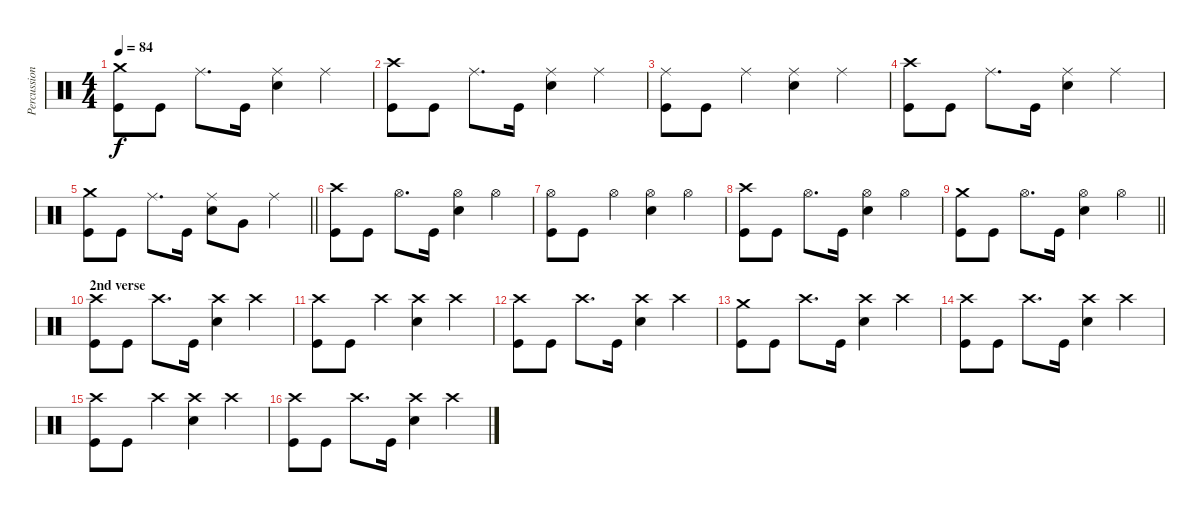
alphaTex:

\track ("Percussions" "Percussion") {instrument percussion}
\staff {score}
\articulation defaults
\ts (4 4)
\tempo 84
\clef neutral
\ks c
("Crash medium (hit)" "Kick (hit)").8{dy f} "Kick (hit)".8 "Ride (middle)".8{d} "Kick (hit)".16 ("Electric Snare (hit)" "Ride (middle)").4 "Ride (middle)".4 |
("Crash high (hit)" "Kick (hit)").8 "Kick (hit)".8 "Ride (middle)".8{d} "Kick (hit)".16 ("Electric Snare (hit)" "Ride (middle)").4 "Ride (middle)".4 |
("Ride (middle)" "Kick (hit)").8 "Kick (hit)".8 "Ride (middle)".4 ("Electric Snare (hit)" "Ride (middle)").4 "Ride (middle)".4 |
("Crash high (hit)" "Kick (hit)").8 "Kick (hit)".8 "Ride (middle)".8{d} "Kick (hit)".16 ("Electric Snare (hit)" "Ride (middle)").4 "Ride (middle)".4 |
\barLineRight lightlight
("Crash medium (hit)" "Kick (hit)").8 "Kick (hit)".8 "Ride (middle)".8{d} "Kick (hit)".16 ("Electric Snare (hit)" "Ride (middle)").8 "Very Low Tom (hit)".8 "Ride (middle)".4 |
\section ("" "")
("Crash high (hit)" "Kick (hit)").8 "Kick (hit)".8 "Hi-Hat (open)".8{d} "Kick (hit)".16 ("Electric Snare (hit)" "Hi-Hat (open)").4 "Hi-Hat (open)".4 |
("Hi-Hat (open)" "Kick (hit)").8 "Kick (hit)".8 "Hi-Hat (open)".4 ("Electric Snare (hit)" "Hi-Hat (open)").4 "Hi-Hat (open)".4 |
("Crash high (hit)" "Kick (hit)").8 "Kick (hit)".8 "Hi-Hat (open)".8{d} "Kick (hit)".16 ("Electric Snare (hit)" "Hi-Hat (open)").4 "Hi-Hat (open)".4 |
\barLineRight lightlight
("Crash medium (hit)" "Kick (hit)").8 "Kick (hit)".8 "Hi-Hat (open)".8{d} "Kick (hit)".16 ("Electric Snare (hit)" "Hi-Hat (open)").4 "Hi-Hat (open)".4 |
\section ("" "2nd verse")
("Crash high (hit)" "Kick (hit)").8 "Kick (hit)".8 "Crash high (hit)".8{d} "Kick (hit)".16 ("Electric Snare (hit)" "Crash high (hit)").4 "Crash high (hit)".4 |
("Crash high (hit)" "Kick (hit)").8 "Kick (hit)".8 "Crash high (hit)".4 ("Electric Snare (hit)" "Crash high (hit)").4 "Crash high (hit)".4 |
("Crash high (hit)" "Kick (hit)").8 "Kick (hit)".8 "Crash high (hit)".8{d} "Kick (hit)".16 ("Electric Snare (hit)" "Crash high (hit)").4 "Crash high (hit)".4 |
("Crash medium (hit)" "Kick (hit)").8 "Kick (hit)".8 "Crash high (hit)".8{d} "Kick (hit)".16 ("Electric Snare (hit)" "Crash high (hit)").4 "Crash high (hit)".4 |
("Crash high (hit)" "Kick (hit)").8 "Kick (hit)".8 "Crash high (hit)".8{d} "Kick (hit)".16 ("Electric Snare (hit)" "Crash high (hit)").4 "Crash high (hit)".4 |
("Crash high (hit)" "Kick (hit)").8 "Kick (hit)".8 "Crash high (hit)".4 ("Electric Snare (hit)" "Crash high (hit)").4 "Crash high (hit)".4 |
("Crash high (hit)" "Kick (hit)").8 "Kick (hit)".8 "Crash high (hit)".8{d} "Kick (hit)".16 ("Electric Snare (hit)" "Crash high (hit)").4 "Crash high (hit)".4
